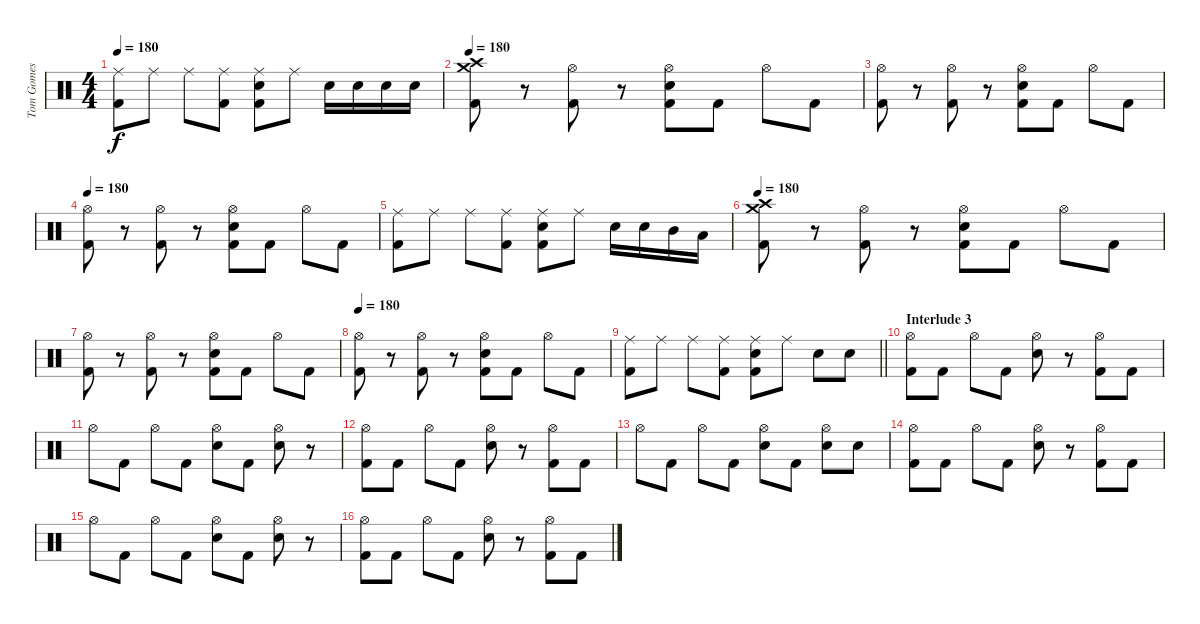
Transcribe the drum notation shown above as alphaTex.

\track ("Tom Gomes" "Tom Gomes") {instrument percussion}
\staff {score}
\articulation defaults
\ts (4 4)
\tempo 180
\clef neutral
\ks c
("Ride (middle)" "Kick (hit) 2").8{dy f} "Ride (middle)".8 "Ride (middle)".8 ("Ride (middle)" "Kick (hit) 2").8 ("Ride (middle)" "Snare (hit) 2" "Kick (hit) 2").8 "Ride (middle)".8 "Snare (hit) 2".16 "Snare (hit) 2".16 "Snare (hit) 2".16 "Snare (hit) 2".16 |
\tempo 180
("Crash high (hit)" "Crash medium (hit)" "Kick (hit) 2").8 r.8 ("Hi-Hat (open)" "Kick (hit) 2").8 r.8 ("Hi-Hat (open)" "Snare (hit) 2" "Kick (hit) 2").8 "Kick (hit) 2".8 "Hi-Hat (open)".8 "Kick (hit) 2".8 |
("Hi-Hat (open)" "Kick (hit) 2").8 r.8 ("Hi-Hat (open)" "Kick (hit) 2").8 r.8 ("Hi-Hat (open)" "Snare (hit) 2" "Kick (hit) 2").8 "Kick (hit) 2".8 "Hi-Hat (open)".8 "Kick (hit) 2".8 |
\tempo 180
("Hi-Hat (open)" "Kick (hit) 2").8 r.8 ("Hi-Hat (open)" "Kick (hit) 2").8 r.8 ("Hi-Hat (open)" "Snare (hit) 2" "Kick (hit) 2").8 "Kick (hit) 2".8 "Hi-Hat (open)".8 "Kick (hit) 2".8 |
("Ride (middle)" "Kick (hit) 2").8 "Ride (middle)".8 "Ride (middle)".8 ("Ride (middle)" "Kick (hit) 2").8 ("Ride (middle)" "Snare (hit) 2" "Kick (hit) 2").8 "Ride (middle)".8 "Snare (hit) 2".16 "Snare (hit) 2".16 "Mid Tom (hit)".16 "Low Tom (hit)".16 |
\tempo 180
("Crash high (hit)" "Crash medium (hit)" "Kick (hit) 2").8 r.8 ("Hi-Hat (open)" "Kick (hit) 2").8 r.8 ("Hi-Hat (open)" "Snare (hit) 2" "Kick (hit) 2").8 "Kick (hit) 2".8 "Hi-Hat (open)".8 "Kick (hit) 2".8 |
("Hi-Hat (open)" "Kick (hit) 2").8 r.8 ("Hi-Hat (open)" "Kick (hit) 2").8 r.8 ("Hi-Hat (open)" "Snare (hit) 2" "Kick (hit) 2").8 "Kick (hit) 2".8 "Hi-Hat (open)".8 "Kick (hit) 2".8 |
\tempo 180
("Hi-Hat (open)" "Kick (hit) 2").8 r.8 ("Hi-Hat (open)" "Kick (hit) 2").8 r.8 ("Hi-Hat (open)" "Snare (hit) 2" "Kick (hit) 2").8 "Kick (hit) 2".8 "Hi-Hat (open)".8 "Kick (hit) 2".8 |
\barLineRight lightlight
("Ride (middle)" "Kick (hit) 2").8 "Ride (middle)".8 "Ride (middle)".8 ("Ride (middle)" "Kick (hit) 2").8 ("Ride (middle)" "Snare (hit) 2" "Kick (hit) 2").8 "Ride (middle)".8 "Snare (hit) 2".8 "Snare (hit) 2".8 |
\section ("" "Interlude 3")
("Hi-Hat (open)" "Kick (hit) 2").8 "Kick (hit) 2".8 "Hi-Hat (open)".8 "Kick (hit) 2".8 ("Hi-Hat (open)" "Snare (hit) 2").8 r.8 ("Hi-Hat (open)" "Kick (hit) 2").8 "Kick (hit) 2".8 |
"Hi-Hat (open)".8 "Kick (hit) 2".8 "Hi-Hat (open)".8 "Kick (hit) 2".8 ("Hi-Hat (open)" "Snare (hit) 2").8 "Kick (hit) 2".8 ("Hi-Hat (open)" "Snare (hit) 2").8 r.8 |
("Hi-Hat (open)" "Kick (hit) 2").8 "Kick (hit) 2".8 "Hi-Hat (open)".8 "Kick (hit) 2".8 ("Hi-Hat (open)" "Snare (hit) 2").8 r.8 ("Hi-Hat (open)" "Kick (hit) 2").8 "Kick (hit) 2".8 |
"Hi-Hat (open)".8 "Kick (hit) 2".8 "Hi-Hat (open)".8 "Kick (hit) 2".8 ("Hi-Hat (open)" "Snare (hit) 2").8 "Kick (hit) 2".8 ("Hi-Hat (open)" "Snare (hit) 2").8 "Snare (hit) 2".8 |
("Hi-Hat (open)" "Kick (hit) 2").8 "Kick (hit) 2".8 "Hi-Hat (open)".8 "Kick (hit) 2".8 ("Hi-Hat (open)" "Snare (hit) 2").8 r.8 ("Hi-Hat (open)" "Kick (hit) 2").8 "Kick (hit) 2".8 |
"Hi-Hat (open)".8 "Kick (hit) 2".8 "Hi-Hat (open)".8 "Kick (hit) 2".8 ("Hi-Hat (open)" "Snare (hit) 2").8 "Kick (hit) 2".8 ("Hi-Hat (open)" "Snare (hit) 2").8 r.8 |
("Hi-Hat (open)" "Kick (hit) 2").8 "Kick (hit) 2".8 "Hi-Hat (open)".8 "Kick (hit) 2".8 ("Hi-Hat (open)" "Snare (hit) 2").8 r.8 ("Hi-Hat (open)" "Kick (hit) 2").8 "Kick (hit) 2".8
